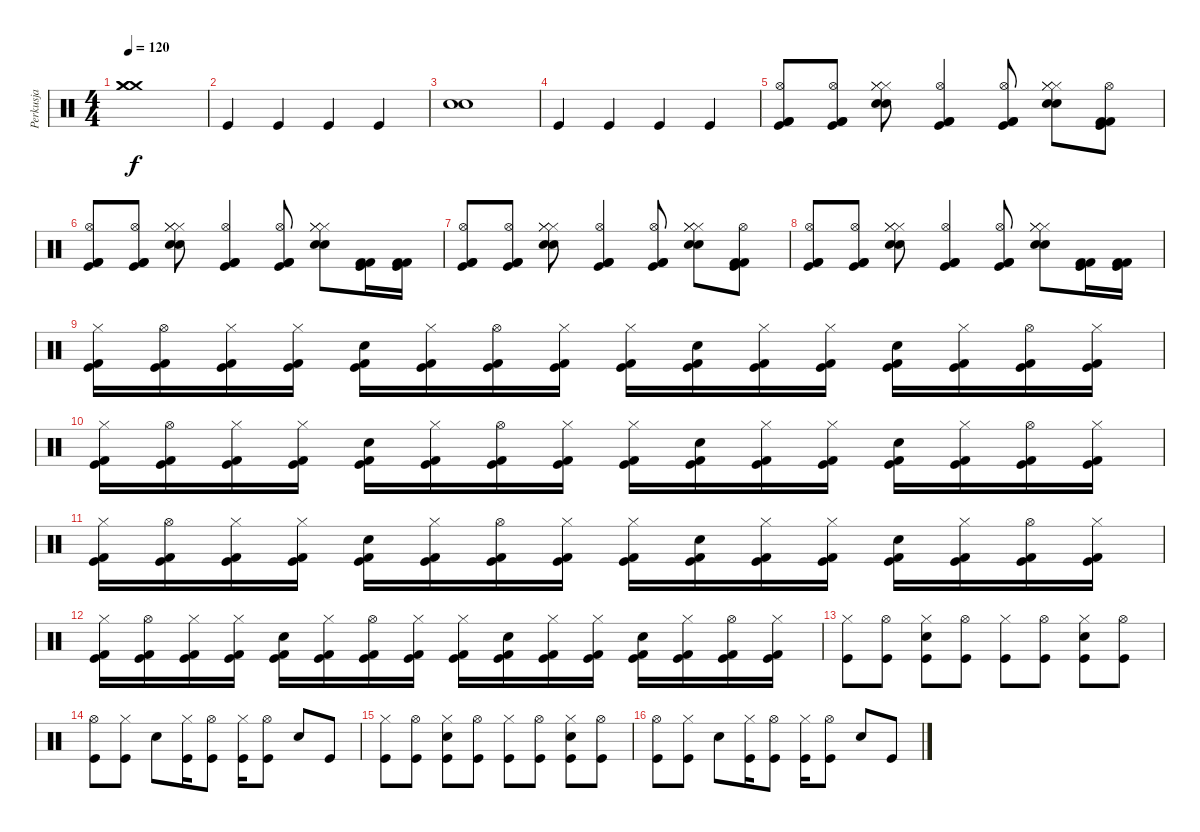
\track ("Perkusja" "Perkusja") {instrument percussion}
\staff {score}
\articulation defaults
\ts (4 4)
\tempo 120
\clef neutral
\ks c
("Crash medium (hit)" "Crash medium (hit)" "Crash medium (hit)").1{dy f} |
"Kick (hit)".4 "Kick (hit)".4 "Kick (hit)".4 "Kick (hit)".4 |
("Snare (hit) 2" "Snare (hit) 2").1 |
"Kick (hit)".4 "Kick (hit)".4 "Kick (hit)".4 "Kick (hit)".4 |
("Hi-Hat (open)" "Kick (hit) 2" "Kick (hit)" "Kick (hit) 2").8 ("Hi-Hat (open)" "Kick (hit) 2" "Kick (hit)" "Kick (hit) 2").8 ("Hi-Hat (closed)" "Hi-Hat (closed)" "Snare (hit) 2" "Snare (hit) 2" "Hi-Hat (closed)").8 ("Hi-Hat (open)" "Kick (hit) 2" "Kick (hit)" "Kick (hit) 2").4 ("Hi-Hat (open)" "Kick (hit) 2" "Kick (hit)" "Kick (hit) 2").8 ("Hi-Hat (closed)" "Hi-Hat (closed)" "Snare (hit) 2" "Snare (hit) 2" "Hi-Hat (closed)").8 ("Hi-Hat (open)" "Kick (hit) 2" "Kick (hit)" "Kick (hit) 2").8 |
("Hi-Hat (open)" "Kick (hit) 2" "Kick (hit)" "Kick (hit) 2").8 ("Hi-Hat (open)" "Kick (hit) 2" "Kick (hit)" "Kick (hit) 2").8 ("Hi-Hat (closed)" "Hi-Hat (closed)" "Snare (hit) 2" "Snare (hit) 2" "Hi-Hat (closed)").8 ("Hi-Hat (open)" "Kick (hit) 2" "Kick (hit)" "Kick (hit) 2").4 ("Hi-Hat (open)" "Kick (hit) 2" "Kick (hit)" "Kick (hit) 2").8 ("Hi-Hat (closed)" "Hi-Hat (closed)" "Snare (hit) 2" "Snare (hit) 2" "Hi-Hat (closed)").8 ("Kick (hit) 2" "Kick (hit)" "Kick (hit) 2").16 ("Kick (hit) 2" "Kick (hit)" "Kick (hit) 2").16 |
("Hi-Hat (open)" "Kick (hit) 2" "Kick (hit)" "Kick (hit) 2").8 ("Hi-Hat (open)" "Kick (hit) 2" "Kick (hit)" "Kick (hit) 2").8 ("Hi-Hat (closed)" "Hi-Hat (closed)" "Snare (hit) 2" "Snare (hit) 2" "Hi-Hat (closed)").8 ("Hi-Hat (open)" "Kick (hit) 2" "Kick (hit)" "Kick (hit) 2").4 ("Hi-Hat (open)" "Kick (hit) 2" "Kick (hit)" "Kick (hit) 2").8 ("Hi-Hat (closed)" "Hi-Hat (closed)" "Snare (hit) 2" "Snare (hit) 2" "Hi-Hat (closed)").8 ("Hi-Hat (open)" "Kick (hit) 2" "Kick (hit)" "Kick (hit) 2").8 |
("Hi-Hat (open)" "Kick (hit) 2" "Kick (hit)" "Kick (hit) 2").8 ("Hi-Hat (open)" "Kick (hit) 2" "Kick (hit)" "Kick (hit) 2").8 ("Hi-Hat (closed)" "Hi-Hat (closed)" "Snare (hit) 2" "Snare (hit) 2" "Hi-Hat (closed)").8 ("Hi-Hat (open)" "Kick (hit) 2" "Kick (hit)" "Kick (hit) 2").4 ("Hi-Hat (open)" "Kick (hit) 2" "Kick (hit)" "Kick (hit) 2").8 ("Hi-Hat (closed)" "Hi-Hat (closed)" "Snare (hit) 2" "Snare (hit) 2" "Hi-Hat (closed)").8 ("Kick (hit) 2" "Kick (hit)" "Kick (hit) 2").16 ("Kick (hit) 2" "Kick (hit)" "Kick (hit) 2").16 |
("Hi-Hat (closed)" "Kick (hit) 2" "Kick (hit)").16 ("Hi-Hat (open)" "Kick (hit) 2" "Kick (hit)").16 ("Hi-Hat (closed)" "Kick (hit) 2" "Kick (hit)").16 ("Hi-Hat (closed)" "Kick (hit) 2" "Kick (hit)").16 ("Snare (hit) 2" "Kick (hit) 2" "Kick (hit)").16 ("Hi-Hat (closed)" "Kick (hit) 2" "Kick (hit)").16 ("Hi-Hat (open)" "Kick (hit) 2" "Kick (hit)").16 ("Hi-Hat (closed)" "Kick (hit) 2" "Kick (hit)").16 ("Hi-Hat (closed)" "Kick (hit) 2" "Kick (hit)").16 ("Snare (hit) 2" "Kick (hit) 2" "Kick (hit)").16 ("Hi-Hat (closed)" "Kick (hit) 2" "Kick (hit)").16 ("Hi-Hat (closed)" "Kick (hit) 2" "Kick (hit)").16 ("Snare (hit) 2" "Kick (hit) 2" "Kick (hit)").16 ("Hi-Hat (closed)" "Kick (hit) 2" "Kick (hit)").16 ("Hi-Hat (open)" "Kick (hit) 2" "Kick (hit)").16 ("Hi-Hat (closed)" "Kick (hit) 2" "Kick (hit)").16 |
("Hi-Hat (closed)" "Kick (hit) 2" "Kick (hit)").16 ("Hi-Hat (open)" "Kick (hit) 2" "Kick (hit)").16 ("Hi-Hat (closed)" "Kick (hit) 2" "Kick (hit)").16 ("Hi-Hat (closed)" "Kick (hit) 2" "Kick (hit)").16 ("Snare (hit) 2" "Kick (hit) 2" "Kick (hit)").16 ("Hi-Hat (closed)" "Kick (hit) 2" "Kick (hit)").16 ("Hi-Hat (open)" "Kick (hit) 2" "Kick (hit)").16 ("Hi-Hat (closed)" "Kick (hit) 2" "Kick (hit)").16 ("Hi-Hat (closed)" "Kick (hit) 2" "Kick (hit)").16 ("Snare (hit) 2" "Kick (hit) 2" "Kick (hit)").16 ("Hi-Hat (closed)" "Kick (hit) 2" "Kick (hit)").16 ("Hi-Hat (closed)" "Kick (hit) 2" "Kick (hit)").16 ("Snare (hit) 2" "Kick (hit) 2" "Kick (hit)").16 ("Hi-Hat (closed)" "Kick (hit) 2" "Kick (hit)").16 ("Hi-Hat (open)" "Kick (hit) 2" "Kick (hit)").16 ("Hi-Hat (closed)" "Kick (hit) 2" "Kick (hit)").16 |
("Hi-Hat (closed)" "Kick (hit) 2" "Kick (hit)").16 ("Hi-Hat (open)" "Kick (hit) 2" "Kick (hit)").16 ("Hi-Hat (closed)" "Kick (hit) 2" "Kick (hit)").16 ("Hi-Hat (closed)" "Kick (hit) 2" "Kick (hit)").16 ("Snare (hit) 2" "Kick (hit) 2" "Kick (hit)").16 ("Hi-Hat (closed)" "Kick (hit) 2" "Kick (hit)").16 ("Hi-Hat (open)" "Kick (hit) 2" "Kick (hit)").16 ("Hi-Hat (closed)" "Kick (hit) 2" "Kick (hit)").16 ("Hi-Hat (closed)" "Kick (hit) 2" "Kick (hit)").16 ("Snare (hit) 2" "Kick (hit) 2" "Kick (hit)").16 ("Hi-Hat (closed)" "Kick (hit) 2" "Kick (hit)").16 ("Hi-Hat (closed)" "Kick (hit) 2" "Kick (hit)").16 ("Snare (hit) 2" "Kick (hit) 2" "Kick (hit)").16 ("Hi-Hat (closed)" "Kick (hit) 2" "Kick (hit)").16 ("Hi-Hat (open)" "Kick (hit) 2" "Kick (hit)").16 ("Hi-Hat (closed)" "Kick (hit) 2" "Kick (hit)").16 |
("Hi-Hat (closed)" "Kick (hit) 2" "Kick (hit)").16 ("Hi-Hat (open)" "Kick (hit) 2" "Kick (hit)").16 ("Hi-Hat (closed)" "Kick (hit) 2" "Kick (hit)").16 ("Hi-Hat (closed)" "Kick (hit) 2" "Kick (hit)").16 ("Snare (hit) 2" "Kick (hit) 2" "Kick (hit)").16 ("Hi-Hat (closed)" "Kick (hit) 2" "Kick (hit)").16 ("Hi-Hat (open)" "Kick (hit) 2" "Kick (hit)").16 ("Hi-Hat (closed)" "Kick (hit) 2" "Kick (hit)").16 ("Hi-Hat (closed)" "Kick (hit) 2" "Kick (hit)").16 ("Snare (hit) 2" "Kick (hit) 2" "Kick (hit)").16 ("Hi-Hat (closed)" "Kick (hit) 2" "Kick (hit)").16 ("Hi-Hat (closed)" "Kick (hit) 2" "Kick (hit)").16 ("Snare (hit) 2" "Kick (hit) 2" "Kick (hit)").16 ("Hi-Hat (closed)" "Kick (hit) 2" "Kick (hit)").16 ("Hi-Hat (open)" "Kick (hit) 2" "Kick (hit)").16 ("Hi-Hat (closed)" "Kick (hit) 2" "Kick (hit)").16 |
("Hi-Hat (closed)" "Kick (hit)").8 ("Hi-Hat (open)" "Kick (hit)").8 ("Hi-Hat (closed)" "Snare (hit) 2" "Kick (hit)").8 ("Hi-Hat (open)" "Kick (hit)").8 ("Hi-Hat (closed)" "Kick (hit)").8 ("Hi-Hat (open)" "Kick (hit)").8 ("Hi-Hat (closed)" "Snare (hit) 2" "Kick (hit)").8 ("Hi-Hat (open)" "Kick (hit)").8 |
("Hi-Hat (open)" "Kick (hit)").8 ("Hi-Hat (closed)" "Kick (hit)").8 "Snare (hit) 2".8 ("Hi-Hat (closed)" "Kick (hit)").16 ("Hi-Hat (open)" "Kick (hit)").8 ("Hi-Hat (closed)" "Kick (hit)").16 ("Hi-Hat (open)" "Kick (hit)").8 "Snare (hit) 2".8 "Kick (hit)".8 |
("Hi-Hat (closed)" "Kick (hit)").8 ("Hi-Hat (open)" "Kick (hit)").8 ("Hi-Hat (closed)" "Snare (hit) 2" "Kick (hit)").8 ("Hi-Hat (open)" "Kick (hit)").8 ("Hi-Hat (closed)" "Kick (hit)").8 ("Hi-Hat (open)" "Kick (hit)").8 ("Hi-Hat (closed)" "Snare (hit) 2" "Kick (hit)").8 ("Hi-Hat (open)" "Kick (hit)").8 |
("Hi-Hat (open)" "Kick (hit)").8 ("Hi-Hat (closed)" "Kick (hit)").8 "Snare (hit) 2".8 ("Hi-Hat (closed)" "Kick (hit)").16 ("Hi-Hat (open)" "Kick (hit)").8 ("Hi-Hat (closed)" "Kick (hit)").16 ("Hi-Hat (open)" "Kick (hit)").8 "Snare (hit) 2".8 "Kick (hit)".8
